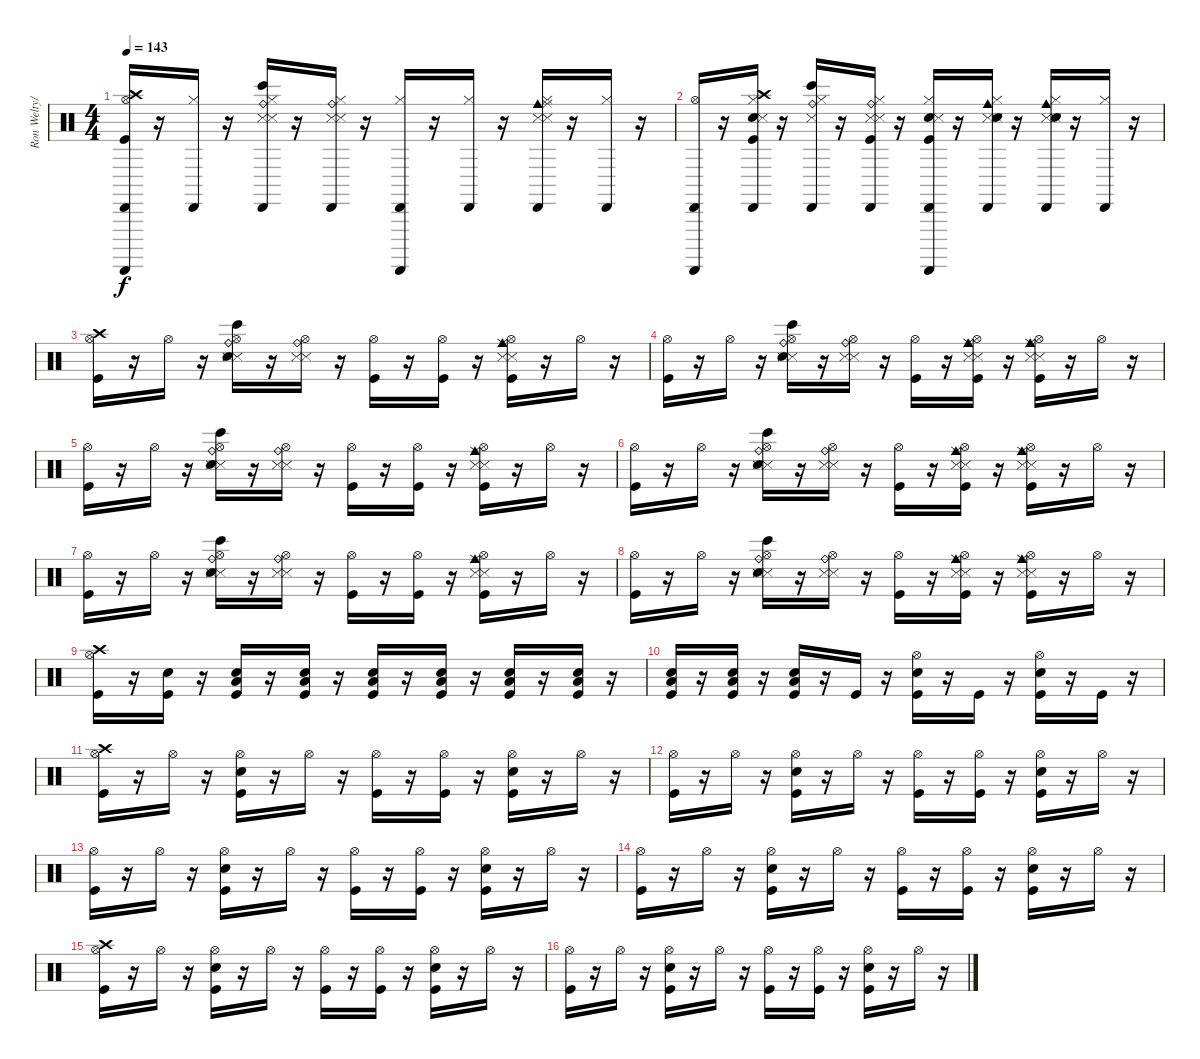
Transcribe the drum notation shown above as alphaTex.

\track ("Ron Welty/Atom Willard" "Ron Welty/") {instrument percussion}
\staff {score}
\articulation defaults
\ts (4 4)
\tempo 143
\clef neutral
\ks c
("Cabasa (hit)" "Hi-Hat (open)" "Guiro (scrap-return)" "Crash high (hit)" "Kick (hit)").16{dy f} r.16 ("Hi-Hat (closed)" "Cabasa (hit)").16 r.16 ("Hi-Hat (closed)" "Cabasa (hit)" "Bongo High (hit)" "Ride (bell)" "Metronome (hit)" "Snare (side stick) 3").16 r.16 ("Hi-Hat (closed)" "Cabasa (hit)" "Ride (bell)" "Metronome (hit)" "Snare (side stick) 3").16 r.16 ("Guiro (scrap-return)" "Hi-Hat (closed)" "Cabasa (hit)").16 r.16 ("Hi-Hat (closed)" "Cabasa (hit)").16 r.16 ("Hi-Hat (closed)" "Cabasa (hit)" "Cowbell medium (hit)" "Ride (middle)" "Metronome (hit)" "Snare (side stick) 3").16 r.16 ("Hi-Hat (closed)" "Cabasa (hit)").16 r.16 |
("Cabasa (hit)" "Hi-Hat (open)" "Guiro (scrap-return)").16 r.16 ("Hi-Hat (closed)" "Cabasa (hit)" "Snare (hit) 2" "Kick (hit)" "Crash high (hit)" "Metronome (hit)").16 r.16 ("Hi-Hat (closed)" "Cabasa (hit)" "Bongo High (hit)" "Ride (bell)" "Snare (side stick) 3").16 r.16 ("Hi-Hat (closed)" "Cabasa (hit)" "Ride (bell)" "Snare (side stick) 3" "Kick (hit)" "Metronome (hit)").16 r.16 ("Guiro (scrap-return)" "Hi-Hat (closed)" "Cabasa (hit)" "Snare (hit) 2" "Kick (hit)" "Metronome (hit)").16 r.16 ("Hi-Hat (closed)" "Cabasa (hit)" "Cowbell medium (hit)" "Snare (side stick) 3" "Snare (hit) 2" "Metronome (hit)").16 r.16 ("Hi-Hat (closed)" "Cabasa (hit)" "Cowbell medium (hit)" "Snare (side stick) 3" "Snare (hit) 2" "Metronome (hit)").16 r.16 ("Hi-Hat (closed)" "Cabasa (hit)").16 r.16 |
("Hi-Hat (open)" "Kick (hit)" "Crash high (hit)").16 r.16 "Hi-Hat (open)".16 r.16 ("Bongo High (hit)" "Ride (bell)" "Metronome (hit)" "Snare (side stick) 3" "Snare (hit) 2" "Hi-Hat (open)").16 r.16 ("Ride (bell)" "Metronome (hit)" "Snare (side stick) 3" "Hi-Hat (open)").16 r.16 ("Kick (hit)" "Hi-Hat (open)").16 r.16 ("Kick (hit)" "Hi-Hat (open)").16 r.16 ("Cowbell medium (hit)" "Ride (middle)" "Metronome (hit)" "Snare (side stick) 3" "Kick (hit)" "Hi-Hat (open)").16 r.16 "Hi-Hat (open)".16 r.16 |
("Hi-Hat (open)" "Kick (hit)").16 r.16 "Hi-Hat (open)".16 r.16 ("Bongo High (hit)" "Ride (bell)" "Metronome (hit)" "Snare (side stick) 3" "Snare (hit) 2" "Hi-Hat (open)").16 r.16 ("Ride (bell)" "Metronome (hit)" "Snare (side stick) 3" "Hi-Hat (open)").16 r.16 ("Kick (hit)" "Hi-Hat (open)").16 r.16 ("Ride (middle)" "Cowbell medium (hit)" "Snare (side stick) 3" "Metronome (hit)" "Kick (hit)" "Hi-Hat (open)").16 r.16 ("Cowbell medium (hit)" "Ride (middle)" "Metronome (hit)" "Snare (side stick) 3" "Kick (hit)" "Hi-Hat (open)").16 r.16 "Hi-Hat (open)".16 r.16 |
("Kick (hit)" "Hi-Hat (open)").16 r.16 "Hi-Hat (open)".16 r.16 ("Bongo High (hit)" "Ride (bell)" "Metronome (hit)" "Snare (side stick) 3" "Snare (hit) 2" "Hi-Hat (open)").16 r.16 ("Ride (bell)" "Metronome (hit)" "Snare (side stick) 3" "Hi-Hat (open)").16 r.16 ("Kick (hit)" "Hi-Hat (open)").16 r.16 ("Kick (hit)" "Hi-Hat (open)").16 r.16 ("Cowbell medium (hit)" "Ride (middle)" "Metronome (hit)" "Snare (side stick) 3" "Kick (hit)" "Hi-Hat (open)").16 r.16 "Hi-Hat (open)".16 r.16 |
("Hi-Hat (open)" "Kick (hit)").16 r.16 "Hi-Hat (open)".16 r.16 ("Bongo High (hit)" "Ride (bell)" "Metronome (hit)" "Snare (side stick) 3" "Snare (hit) 2" "Hi-Hat (open)").16 r.16 ("Ride (bell)" "Metronome (hit)" "Snare (side stick) 3" "Hi-Hat (open)").16 r.16 ("Kick (hit)" "Hi-Hat (open)").16 r.16 ("Ride (middle)" "Cowbell medium (hit)" "Snare (side stick) 3" "Metronome (hit)" "Kick (hit)" "Hi-Hat (open)").16 r.16 ("Cowbell medium (hit)" "Ride (middle)" "Metronome (hit)" "Snare (side stick) 3" "Kick (hit)" "Hi-Hat (open)").16 r.16 "Hi-Hat (open)".16 r.16 |
("Kick (hit)" "Hi-Hat (open)").16 r.16 "Hi-Hat (open)".16 r.16 ("Bongo High (hit)" "Ride (bell)" "Metronome (hit)" "Snare (side stick) 3" "Snare (hit) 2" "Hi-Hat (open)").16 r.16 ("Ride (bell)" "Metronome (hit)" "Snare (side stick) 3" "Hi-Hat (open)").16 r.16 ("Kick (hit)" "Hi-Hat (open)").16 r.16 ("Kick (hit)" "Hi-Hat (open)").16 r.16 ("Cowbell medium (hit)" "Ride (middle)" "Metronome (hit)" "Snare (side stick) 3" "Kick (hit)" "Hi-Hat (open)").16 r.16 "Hi-Hat (open)".16 r.16 |
("Hi-Hat (open)" "Kick (hit)").16 r.16 "Hi-Hat (open)".16 r.16 ("Bongo High (hit)" "Ride (bell)" "Metronome (hit)" "Snare (side stick) 3" "Snare (hit) 2" "Hi-Hat (open)").16 r.16 ("Ride (bell)" "Metronome (hit)" "Snare (side stick) 3" "Hi-Hat (open)").16 r.16 ("Kick (hit)" "Hi-Hat (open)").16 r.16 ("Ride (middle)" "Cowbell medium (hit)" "Snare (side stick) 3" "Metronome (hit)" "Kick (hit)" "Hi-Hat (open)").16 r.16 ("Cowbell medium (hit)" "Ride (middle)" "Metronome (hit)" "Snare (side stick) 3" "Kick (hit)" "Hi-Hat (open)").16 r.16 "Hi-Hat (open)".16 r.16 |
("Hi-Hat (open)" "Crash high (hit)" "Kick (hit)").16 r.16 ("Snare (hit) 2" "Kick (hit)").16 r.16 ("Snare (hit) 2" "Kick (hit)" "Low Floor Tom (hit)").16 r.16 ("Snare (hit) 2" "Kick (hit)" "Low Floor Tom (hit)").16 r.16 ("Snare (hit) 2" "Kick (hit)" "Low Floor Tom (hit)").16 r.16 ("Snare (hit) 2" "Kick (hit)" "Low Floor Tom (hit)").16 r.16 ("Snare (hit) 2" "Kick (hit)" "Low Floor Tom (hit)").16 r.16 ("Snare (hit) 2" "Kick (hit)" "Low Floor Tom (hit)").16 r.16 |
("Snare (hit) 2" "Kick (hit)" "Low Floor Tom (hit)").16 r.16 ("Snare (hit) 2" "Kick (hit)" "Low Floor Tom (hit)").16 r.16 ("Snare (hit) 2" "Kick (hit)" "Low Floor Tom (hit)").16 r.16 "Kick (hit)".16 r.16 ("Snare (hit) 2" "Kick (hit)" "Hi-Hat (open)").16 r.16 "Kick (hit)".16 r.16 ("Snare (hit) 2" "Kick (hit)" "Hi-Hat (open)").16 r.16 "Kick (hit)".16 r.16 |
("Kick (hit)" "Hi-Hat (open)" "Crash high (hit)").16 r.16 "Hi-Hat (open)".16 r.16 ("Snare (hit) 2" "Kick (hit)" "Hi-Hat (open)").16 r.16 "Hi-Hat (open)".16 r.16 ("Kick (hit)" "Hi-Hat (open)").16 r.16 ("Kick (hit)" "Hi-Hat (open)").16 r.16 ("Kick (hit)" "Snare (hit) 2" "Hi-Hat (open)").16 r.16 "Hi-Hat (open)".16 r.16 |
("Kick (hit)" "Hi-Hat (open)").16 r.16 "Hi-Hat (open)".16 r.16 ("Snare (hit) 2" "Kick (hit)" "Hi-Hat (open)").16 r.16 "Hi-Hat (open)".16 r.16 ("Kick (hit)" "Hi-Hat (open)").16 r.16 ("Kick (hit)" "Hi-Hat (open)").16 r.16 ("Kick (hit)" "Snare (hit) 2" "Hi-Hat (open)").16 r.16 "Hi-Hat (open)".16 r.16 |
("Hi-Hat (open)" "Kick (hit)").16 r.16 "Hi-Hat (open)".16 r.16 ("Snare (hit) 2" "Kick (hit)" "Hi-Hat (open)").16 r.16 "Hi-Hat (open)".16 r.16 ("Kick (hit)" "Hi-Hat (open)").16 r.16 ("Kick (hit)" "Hi-Hat (open)").16 r.16 ("Kick (hit)" "Snare (hit) 2" "Hi-Hat (open)").16 r.16 "Hi-Hat (open)".16 r.16 |
("Hi-Hat (open)" "Kick (hit)").16 r.16 "Hi-Hat (open)".16 r.16 ("Snare (hit) 2" "Kick (hit)" "Hi-Hat (open)").16 r.16 "Hi-Hat (open)".16 r.16 ("Kick (hit)" "Hi-Hat (open)").16 r.16 ("Kick (hit)" "Hi-Hat (open)").16 r.16 ("Kick (hit)" "Snare (hit) 2" "Hi-Hat (open)").16 r.16 "Hi-Hat (open)".16 r.16 |
("Hi-Hat (open)" "Kick (hit)" "Crash high (hit)").16 r.16 "Hi-Hat (open)".16 r.16 ("Snare (hit) 2" "Kick (hit)" "Hi-Hat (open)").16 r.16 "Hi-Hat (open)".16 r.16 ("Kick (hit)" "Hi-Hat (open)").16 r.16 ("Kick (hit)" "Hi-Hat (open)").16 r.16 ("Kick (hit)" "Snare (hit) 2" "Hi-Hat (open)").16 r.16 "Hi-Hat (open)".16 r.16 |
("Hi-Hat (open)" "Kick (hit)").16 r.16 "Hi-Hat (open)".16 r.16 ("Snare (hit) 2" "Kick (hit)" "Hi-Hat (open)").16 r.16 "Hi-Hat (open)".16 r.16 ("Kick (hit)" "Hi-Hat (open)").16 r.16 ("Kick (hit)" "Hi-Hat (open)").16 r.16 ("Kick (hit)" "Snare (hit) 2" "Hi-Hat (open)").16 r.16 "Hi-Hat (open)".16 r.16
